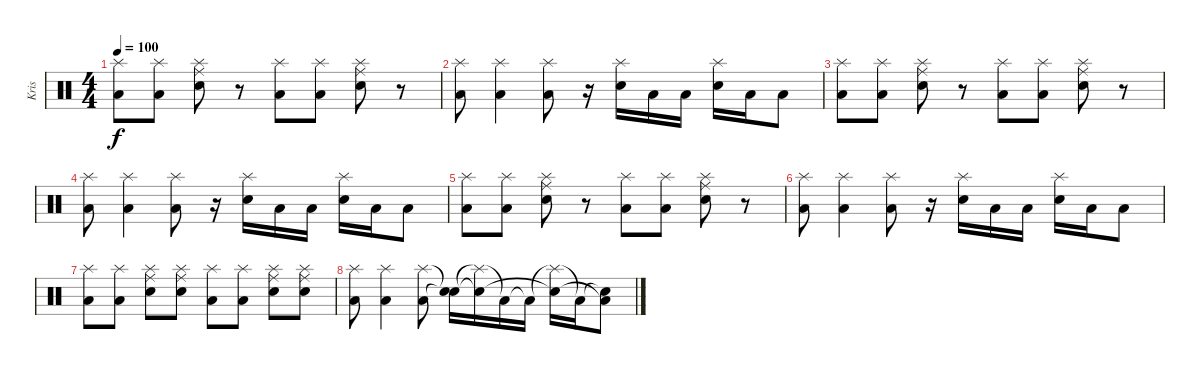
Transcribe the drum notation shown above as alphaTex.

\track ("Kris" "Kris") {instrument percussion}
\staff {score}
\articulation defaults
\ts (4 4)
\tempo 100
\clef neutral
\ks c
("Splash (hit)" "Low Tom (hit)").8{dy f} ("Splash (hit)" "Low Tom (hit)").8 ("Splash (hit)" "Ride (middle)" "Electric Snare (hit)").8 r.8 ("Splash (hit)" "Low Tom (hit)").8 ("Splash (hit)" "Low Tom (hit)").8 ("Splash (hit)" "Ride (middle)" "Electric Snare (hit)").8 r.8 |
("Splash (hit)" "Low Tom (hit)").8 ("Splash (hit)" "Low Tom (hit)").4 ("Splash (hit)" "Low Tom (hit)").8 r.16 ("Splash (hit)" "Electric Snare (hit)").16 "Low Tom (hit)".16 "Low Tom (hit)".16 ("Splash (hit)" "Electric Snare (hit)").16 "Low Tom (hit)".16 "Low Tom (hit)".8 |
("Splash (hit)" "Low Tom (hit)").8 ("Splash (hit)" "Low Tom (hit)").8 ("Splash (hit)" "Ride (middle)" "Electric Snare (hit)").8 r.8 ("Splash (hit)" "Low Tom (hit)").8 ("Splash (hit)" "Low Tom (hit)").8 ("Splash (hit)" "Ride (middle)" "Electric Snare (hit)").8 r.8 |
("Splash (hit)" "Low Tom (hit)").8 ("Splash (hit)" "Low Tom (hit)").4 ("Splash (hit)" "Low Tom (hit)").8 r.16 ("Splash (hit)" "Electric Snare (hit)").16 "Low Tom (hit)".16 "Low Tom (hit)".16 ("Splash (hit)" "Electric Snare (hit)").16 "Low Tom (hit)".16 "Low Tom (hit)".8 |
("Splash (hit)" "Low Tom (hit)").8 ("Splash (hit)" "Low Tom (hit)").8 ("Splash (hit)" "Ride (middle)" "Electric Snare (hit)").8 r.8 ("Splash (hit)" "Low Tom (hit)").8 ("Splash (hit)" "Low Tom (hit)").8 ("Splash (hit)" "Ride (middle)" "Electric Snare (hit)").8 r.8 |
("Splash (hit)" "Low Tom (hit)").8 ("Splash (hit)" "Low Tom (hit)").4 ("Splash (hit)" "Low Tom (hit)").8 r.16 ("Splash (hit)" "Electric Snare (hit)").16 "Low Tom (hit)".16 "Low Tom (hit)".16 ("Splash (hit)" "Electric Snare (hit)").16 "Low Tom (hit)".16 "Low Tom (hit)".8 |
("Splash (hit)" "Low Tom (hit)").8 ("Splash (hit)" "Low Tom (hit)").8 ("Splash (hit)" "Ride (middle)" "Electric Snare (hit)").8 ("Splash (hit)" "Ride (middle)" "Electric Snare (hit)").8 ("Splash (hit)" "Low Tom (hit)").8 ("Splash (hit)" "Low Tom (hit)").8 ("Splash (hit)" "Ride (middle)" "Electric Snare (hit)").8 ("Splash (hit)" "Ride (middle)" "Electric Snare (hit)").8 |
("Splash (hit)" "Low Tom (hit)").8 ("Splash (hit)" "Low Tom (hit)").4 ("Splash (hit)" "Low Tom (hit)").8 ("Snare (hit)"{t} "Snare (hit)"{t}).16 ("Splash (hit)"{t} "Electric Snare (hit)"{t}).16 "Low Tom (hit)"{t}.16 "Low Tom (hit)"{t}.16 ("Splash (hit)"{t} "Electric Snare (hit)"{t}).16 "Low Tom (hit)"{t}.16 ("Snare (hit)"{t} "Low Tom (hit)"{t}).8
